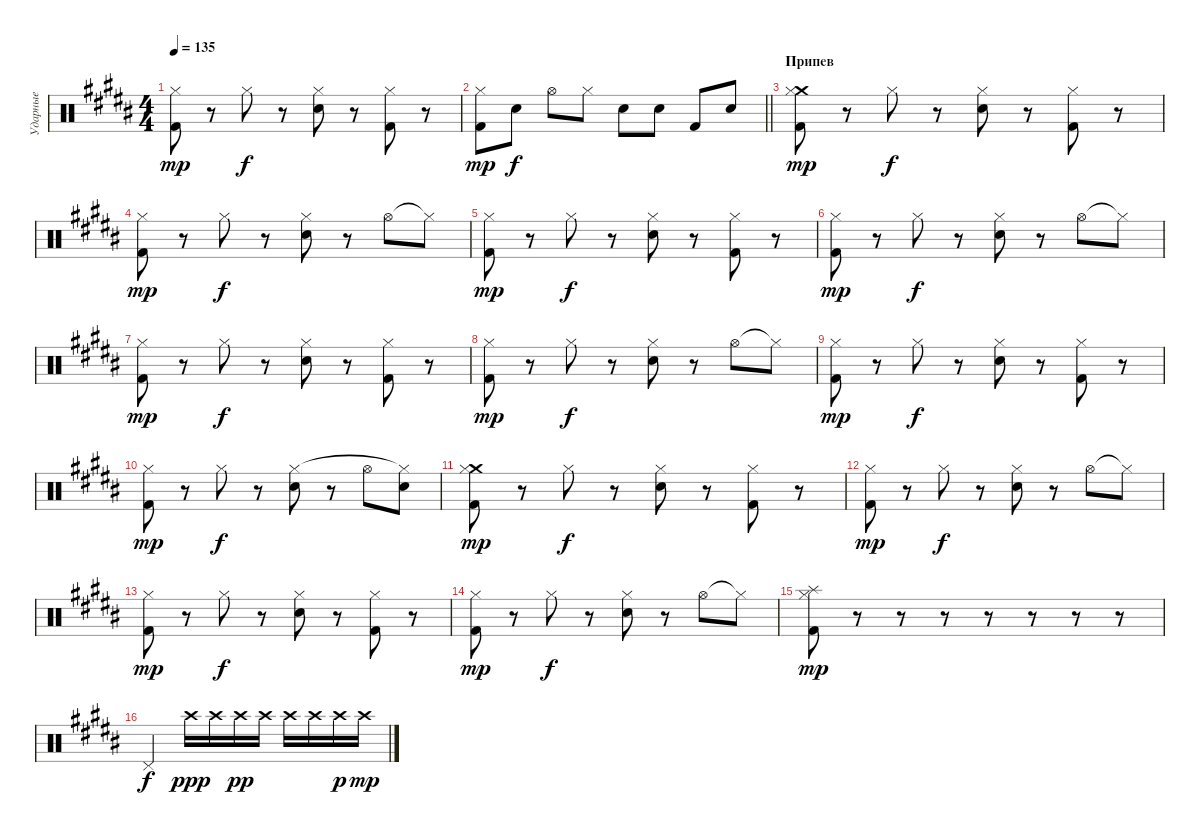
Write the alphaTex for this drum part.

\track ("Ударные" "Ударные") {instrument percussion}
\staff {score}
\articulation defaults
\ts (4 4)
\tempo 135
\clef neutral
\ks g#minor
("Kick (hit) 2" "Hi-Hat (closed)").8{dy mp} r.8 "Hi-Hat (closed)".8{dy f} r.8 ("Electric Snare (hit)" "Hi-Hat (closed)").8 r.8 ("Kick (hit) 2" "Hi-Hat (closed)").8 r.8 |
\barLineRight lightlight
("Kick (hit) 2" "Hi-Hat (closed)").8{dy mp} "Electric Snare (hit)".8{dy f} "Hi-Hat (open)".8 "Hi-Hat (closed)".8 "Electric Snare (hit)".8 "Electric Snare (hit)".8 "Kick (hit) 2".8 "Electric Snare (hit)".8 |
\section ("" "Припев")
("Crash medium (hit)" "Kick (hit) 2" "Hi-Hat (closed)").8{dy mp} r.8 "Hi-Hat (closed)".8{dy f} r.8 ("Electric Snare (hit)" "Hi-Hat (closed)").8 r.8 ("Kick (hit) 2" "Hi-Hat (closed)").8 r.8 |
("Kick (hit) 2" "Hi-Hat (closed)").8{dy mp} r.8 "Hi-Hat (closed)".8{dy f} r.8 ("Electric Snare (hit)" "Hi-Hat (closed)").8 r.8 "Hi-Hat (open)".8 "Hi-Hat (closed)"{t}.8 |
("Kick (hit) 2" "Hi-Hat (closed)").8{dy mp} r.8 "Hi-Hat (closed)".8{dy f} r.8 ("Electric Snare (hit)" "Hi-Hat (closed)").8 r.8 ("Kick (hit) 2" "Hi-Hat (closed)").8 r.8 |
("Kick (hit) 2" "Hi-Hat (closed)").8{dy mp} r.8 "Hi-Hat (closed)".8{dy f} r.8 ("Electric Snare (hit)" "Hi-Hat (closed)").8 r.8 "Hi-Hat (open)".8 "Hi-Hat (closed)"{t}.8 |
("Kick (hit) 2" "Hi-Hat (closed)").8{dy mp} r.8 "Hi-Hat (closed)".8{dy f} r.8 ("Electric Snare (hit)" "Hi-Hat (closed)").8 r.8 ("Kick (hit) 2" "Hi-Hat (closed)").8 r.8 |
("Kick (hit) 2" "Hi-Hat (closed)").8{dy mp} r.8 "Hi-Hat (closed)".8{dy f} r.8 ("Electric Snare (hit)" "Hi-Hat (closed)").8 r.8 "Hi-Hat (open)".8 "Hi-Hat (closed)"{t}.8 |
("Kick (hit) 2" "Hi-Hat (closed)").8{dy mp} r.8 "Hi-Hat (closed)".8{dy f} r.8 ("Electric Snare (hit)" "Hi-Hat (closed)").8 r.8 ("Kick (hit) 2" "Hi-Hat (closed)").8 r.8 |
("Kick (hit) 2" "Hi-Hat (closed)").8{dy mp} r.8 "Hi-Hat (closed)".8{dy f} r.8 ("Electric Snare (hit)" "Hi-Hat (closed)").8 r.8 "Hi-Hat (open)".8 ("Electric Snare (hit)" "Hi-Hat (closed)"{t}).8 |
("Crash medium (hit)" "Kick (hit) 2" "Hi-Hat (closed)").8{dy mp} r.8 "Hi-Hat (closed)".8{dy f} r.8 ("Electric Snare (hit)" "Hi-Hat (closed)").8 r.8 ("Kick (hit) 2" "Hi-Hat (closed)").8 r.8 |
("Kick (hit) 2" "Hi-Hat (closed)").8{dy mp} r.8 "Hi-Hat (closed)".8{dy f} r.8 ("Electric Snare (hit)" "Hi-Hat (closed)").8 r.8 "Hi-Hat (open)".8 "Hi-Hat (closed)"{t}.8 |
("Kick (hit) 2" "Hi-Hat (closed)").8{dy mp} r.8 "Hi-Hat (closed)".8{dy f} r.8 ("Electric Snare (hit)" "Hi-Hat (closed)").8 r.8 ("Kick (hit) 2" "Hi-Hat (closed)").8 r.8 |
("Kick (hit) 2" "Hi-Hat (closed)").8{dy mp} r.8 "Hi-Hat (closed)".8{dy f} r.8 ("Electric Snare (hit)" "Hi-Hat (closed)").8 r.8 "Hi-Hat (open)".8 "Hi-Hat (closed)"{t}.8 |
("Kick (hit) 2" "Splash (hit)" "Hi-Hat (closed)").8{dy mp} r.8 r.8 r.8 r.8 r.8 r.8 r.8 |
"Pedal Hi-Hat (hit)".2{dy f} "Crash high (hit)".16{dy ppp} "Crash high (hit)".16 "Crash high (hit)".16{dy pp} "Crash high (hit)".16 "Crash high (hit)".16 "Crash high (hit)".16 "Crash high (hit)".16{dy p} "Crash high (hit)".16{dy mp}
